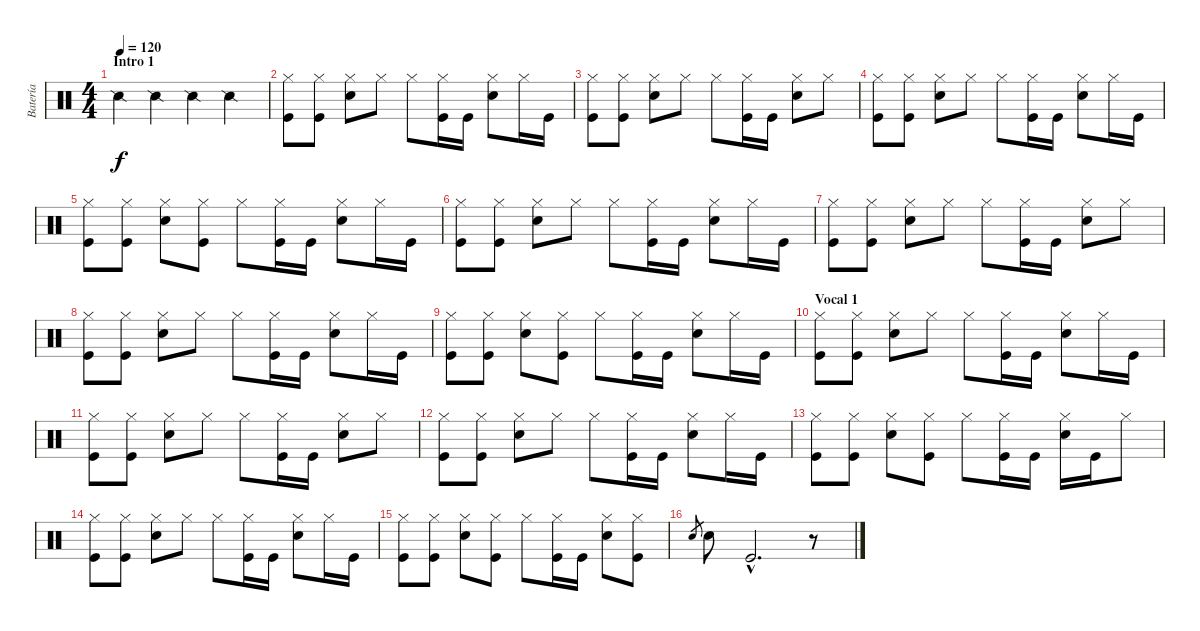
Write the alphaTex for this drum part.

\track ("Batería" "Batería") {instrument percussion}
\staff {score}
\articulation defaults
\ts (4 4)
\section ("" "Intro 1")
\tempo 120
\clef neutral
\ks c "Snare (side stick) 2".4{dy f} "Snare (side stick) 2".4 "Snare (side stick) 2".4 "Snare (side stick) 2".4
|
("Kick (hit)" "Hi-Hat (closed)").8 ("Kick (hit)" "Hi-Hat (closed)").8 ("Electric Snare (hit)" "Hi-Hat (closed)").8 "Hi-Hat (closed)".8 "Hi-Hat (closed)".8 ("Kick (hit)" "Hi-Hat (closed)").16 "Kick (hit)".16 ("Electric Snare (hit)" "Hi-Hat (closed)").8 "Hi-Hat (closed)".16 "Kick (hit)".16 |
("Kick (hit)" "Hi-Hat (closed)").8 ("Kick (hit)" "Hi-Hat (closed)").8 ("Electric Snare (hit)" "Hi-Hat (closed)").8 "Hi-Hat (closed)".8 "Hi-Hat (closed)".8 ("Kick (hit)" "Hi-Hat (closed)").16 "Kick (hit)".16 ("Electric Snare (hit)" "Hi-Hat (closed)").8 "Hi-Hat (closed)".8 |
("Kick (hit)" "Hi-Hat (closed)").8 ("Kick (hit)" "Hi-Hat (closed)").8 ("Electric Snare (hit)" "Hi-Hat (closed)").8 "Hi-Hat (closed)".8 "Hi-Hat (closed)".8 ("Kick (hit)" "Hi-Hat (closed)").16 "Kick (hit)".16 ("Electric Snare (hit)" "Hi-Hat (closed)").8 "Hi-Hat (closed)".16 "Kick (hit)".16 |
("Kick (hit)" "Hi-Hat (closed)").8 ("Kick (hit)" "Hi-Hat (closed)").8 ("Electric Snare (hit)" "Hi-Hat (closed)").8 ("Kick (hit)" "Hi-Hat (closed)").8 "Hi-Hat (closed)".8 ("Kick (hit)" "Hi-Hat (closed)").16 "Kick (hit)".16 ("Electric Snare (hit)" "Hi-Hat (closed)").8 "Hi-Hat (closed)".16 "Kick (hit)".16 |
("Kick (hit)" "Hi-Hat (closed)").8 ("Kick (hit)" "Hi-Hat (closed)").8 ("Electric Snare (hit)" "Hi-Hat (closed)").8 "Hi-Hat (closed)".8 "Hi-Hat (closed)".8 ("Kick (hit)" "Hi-Hat (closed)").16 "Kick (hit)".16 ("Electric Snare (hit)" "Hi-Hat (closed)").8 "Hi-Hat (closed)".16 "Kick (hit)".16 |
("Kick (hit)" "Hi-Hat (closed)").8 ("Kick (hit)" "Hi-Hat (closed)").8 ("Electric Snare (hit)" "Hi-Hat (closed)").8 "Hi-Hat (closed)".8 "Hi-Hat (closed)".8 ("Kick (hit)" "Hi-Hat (closed)").16 "Kick (hit)".16 ("Electric Snare (hit)" "Hi-Hat (closed)").8 "Hi-Hat (closed)".8 |
("Kick (hit)" "Hi-Hat (closed)").8 ("Kick (hit)" "Hi-Hat (closed)").8 ("Electric Snare (hit)" "Hi-Hat (closed)").8 "Hi-Hat (closed)".8 "Hi-Hat (closed)".8 ("Kick (hit)" "Hi-Hat (closed)").16 "Kick (hit)".16 ("Electric Snare (hit)" "Hi-Hat (closed)").8 "Hi-Hat (closed)".16 "Kick (hit)".16 |
("Kick (hit)" "Hi-Hat (closed)").8 ("Kick (hit)" "Hi-Hat (closed)").8 ("Electric Snare (hit)" "Hi-Hat (closed)").8 ("Kick (hit)" "Hi-Hat (closed)").8 "Hi-Hat (closed)".8 ("Kick (hit)" "Hi-Hat (closed)").16 "Kick (hit)".16 ("Electric Snare (hit)" "Hi-Hat (closed)").8 "Hi-Hat (closed)".16 "Kick (hit)".16 |
\section ("" "Vocal 1")
("Kick (hit)" "Hi-Hat (closed)").8 ("Kick (hit)" "Hi-Hat (closed)").8 ("Electric Snare (hit)" "Hi-Hat (closed)").8 "Hi-Hat (closed)".8 "Hi-Hat (closed)".8 ("Kick (hit)" "Hi-Hat (closed)").16 "Kick (hit)".16 ("Electric Snare (hit)" "Hi-Hat (closed)").8 "Hi-Hat (closed)".16 "Kick (hit)".16 |
("Kick (hit)" "Hi-Hat (closed)").8 ("Kick (hit)" "Hi-Hat (closed)").8 ("Electric Snare (hit)" "Hi-Hat (closed)").8 "Hi-Hat (closed)".8 "Hi-Hat (closed)".8 ("Kick (hit)" "Hi-Hat (closed)").16 "Kick (hit)".16 ("Electric Snare (hit)" "Hi-Hat (closed)").8 "Hi-Hat (closed)".8 |
("Kick (hit)" "Hi-Hat (closed)").8 ("Kick (hit)" "Hi-Hat (closed)").8 ("Electric Snare (hit)" "Hi-Hat (closed)").8 "Hi-Hat (closed)".8 "Hi-Hat (closed)".8 ("Kick (hit)" "Hi-Hat (closed)").16 "Kick (hit)".16 ("Electric Snare (hit)" "Hi-Hat (closed)").8 "Hi-Hat (closed)".16 "Kick (hit)".16 |
("Kick (hit)" "Hi-Hat (closed)").8 ("Kick (hit)" "Hi-Hat (closed)").8 ("Electric Snare (hit)" "Hi-Hat (closed)").8 ("Kick (hit)" "Hi-Hat (closed)").8 "Hi-Hat (closed)".8 ("Kick (hit)" "Hi-Hat (closed)").16 "Kick (hit)".16 ("Electric Snare (hit)" "Hi-Hat (closed)").16 "Kick (hit)".16 "Hi-Hat (closed)".8 |
("Kick (hit)" "Hi-Hat (closed)").8 ("Kick (hit)" "Hi-Hat (closed)").8 ("Electric Snare (hit)" "Hi-Hat (closed)").8 "Hi-Hat (closed)".8 "Hi-Hat (closed)".8 ("Kick (hit)" "Hi-Hat (closed)").16 "Kick (hit)".16 ("Electric Snare (hit)" "Hi-Hat (closed)").8 "Hi-Hat (closed)".16 "Kick (hit)".16 |
("Kick (hit)" "Hi-Hat (closed)").8 ("Kick (hit)" "Hi-Hat (closed)").8 ("Electric Snare (hit)" "Hi-Hat (closed)").8 ("Kick (hit)" "Hi-Hat (closed)").8 "Hi-Hat (closed)".8 ("Kick (hit)" "Hi-Hat (closed)").16 "Kick (hit)".16 ("Electric Snare (hit)" "Hi-Hat (closed)").8 ("Kick (hit)" "Hi-Hat (closed)").8 |
"Electric Snare (hit)".8{gr} "Electric Snare (hit)".8 "Kick (hit)"{hac}.2{d} r.8
